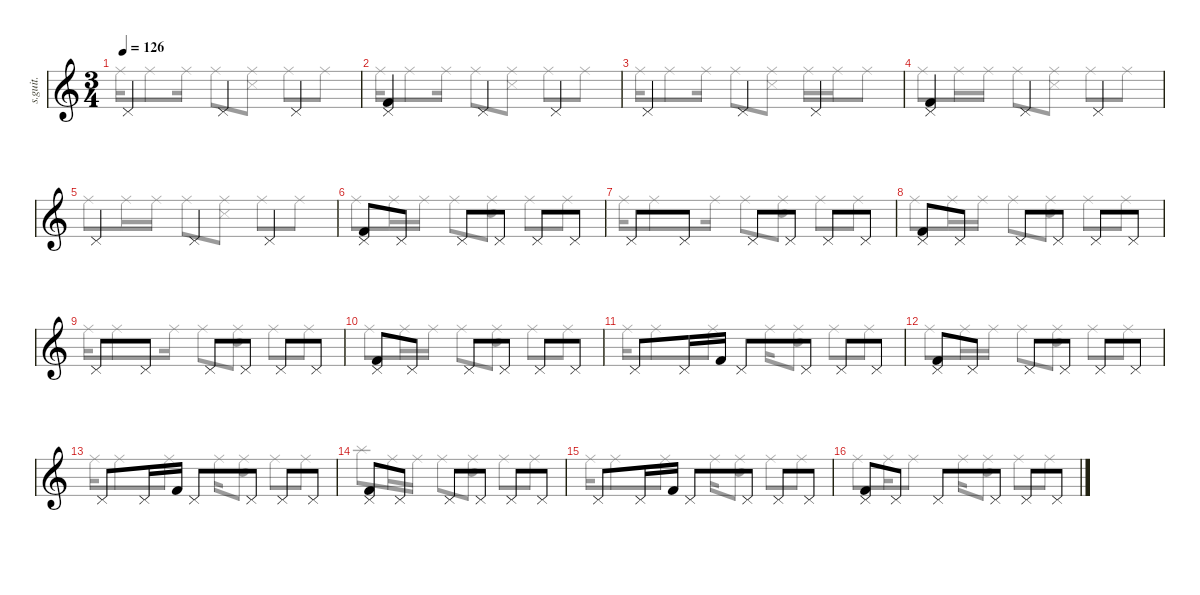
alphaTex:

\defaultSystemsLayout 4
\hideDynamics
\bracketExtendMode nobrackets
\track ("Percussion" "s.guit.") {instrument percussion}
\staff {score}
\articulation defaults
\voice
\ts (3 4)
\tempo 126
\clef g2
\ks c "Pedal Hi-Hat (hit)".4{lyrics (0 "") lyrics (1 "") lyrics (2 "") lyrics (3 "") lyrics (4 "") dy mf} "Pedal Hi-Hat (hit)".4{lyrics (0 "") lyrics (1 "") lyrics (2 "") lyrics (3 "") lyrics (4 "")} "Pedal Hi-Hat (hit)".4{lyrics (0 "") lyrics (1 "") lyrics (2 "") lyrics (3 "") lyrics (4 "")}
|
("Pedal Hi-Hat (hit)" "Kick (hit) 2").4{lyrics (0 "") lyrics (1 "") lyrics (2 "") lyrics (3 "") lyrics (4 "")} "Pedal Hi-Hat (hit)".4{lyrics (0 "") lyrics (1 "") lyrics (2 "") lyrics (3 "") lyrics (4 "")} "Pedal Hi-Hat (hit)".4{lyrics (0 "") lyrics (1 "") lyrics (2 "") lyrics (3 "") lyrics (4 "")} |
"Pedal Hi-Hat (hit)".4{lyrics (0 "") lyrics (1 "") lyrics (2 "") lyrics (3 "") lyrics (4 "")} "Pedal Hi-Hat (hit)".4{lyrics (0 "") lyrics (1 "") lyrics (2 "") lyrics (3 "") lyrics (4 "")} "Pedal Hi-Hat (hit)".4{lyrics (0 "") lyrics (1 "") lyrics (2 "") lyrics (3 "") lyrics (4 "")} |
("Pedal Hi-Hat (hit)" "Kick (hit) 2").4{lyrics (0 "") lyrics (1 "") lyrics (2 "") lyrics (3 "") lyrics (4 "")} "Pedal Hi-Hat (hit)".4{lyrics (0 "") lyrics (1 "") lyrics (2 "") lyrics (3 "") lyrics (4 "")} "Pedal Hi-Hat (hit)".4{lyrics (0 "") lyrics (1 "") lyrics (2 "") lyrics (3 "") lyrics (4 "")} |
"Pedal Hi-Hat (hit)".4{lyrics (0 "") lyrics (1 "") lyrics (2 "") lyrics (3 "") lyrics (4 "")} "Pedal Hi-Hat (hit)".4{lyrics (0 "") lyrics (1 "") lyrics (2 "") lyrics (3 "") lyrics (4 "")} "Pedal Hi-Hat (hit)".4{lyrics (0 "") lyrics (1 "") lyrics (2 "") lyrics (3 "") lyrics (4 "")} |
("Pedal Hi-Hat (hit)" "Kick (hit) 2").8{lyrics (0 "") lyrics (1 "") lyrics (2 "") lyrics (3 "") lyrics (4 "")} "Pedal Hi-Hat (hit)".8{lyrics (0 "") lyrics (1 "") lyrics (2 "") lyrics (3 "") lyrics (4 "")} "Pedal Hi-Hat (hit)".8{lyrics (0 "") lyrics (1 "") lyrics (2 "") lyrics (3 "") lyrics (4 "")} "Pedal Hi-Hat (hit)".8{lyrics (0 "") lyrics (1 "") lyrics (2 "") lyrics (3 "") lyrics (4 "")} "Pedal Hi-Hat (hit)".8{lyrics (0 "") lyrics (1 "") lyrics (2 "") lyrics (3 "") lyrics (4 "")} "Pedal Hi-Hat (hit)".8{lyrics (0 "") lyrics (1 "") lyrics (2 "") lyrics (3 "") lyrics (4 "")} |
"Pedal Hi-Hat (hit)".8{lyrics (0 "") lyrics (1 "") lyrics (2 "") lyrics (3 "") lyrics (4 "")} "Pedal Hi-Hat (hit)".8{lyrics (0 "") lyrics (1 "") lyrics (2 "") lyrics (3 "") lyrics (4 "")} "Pedal Hi-Hat (hit)".8{lyrics (0 "") lyrics (1 "") lyrics (2 "") lyrics (3 "") lyrics (4 "")} "Pedal Hi-Hat (hit)".8{lyrics (0 "") lyrics (1 "") lyrics (2 "") lyrics (3 "") lyrics (4 "")} "Pedal Hi-Hat (hit)".8{lyrics (0 "") lyrics (1 "") lyrics (2 "") lyrics (3 "") lyrics (4 "")} "Pedal Hi-Hat (hit)".8{lyrics (0 "") lyrics (1 "") lyrics (2 "") lyrics (3 "") lyrics (4 "")} |
("Pedal Hi-Hat (hit)" "Kick (hit) 2").8{lyrics (0 "") lyrics (1 "") lyrics (2 "") lyrics (3 "") lyrics (4 "")} "Pedal Hi-Hat (hit)".8{lyrics (0 "") lyrics (1 "") lyrics (2 "") lyrics (3 "") lyrics (4 "")} "Pedal Hi-Hat (hit)".8{lyrics (0 "") lyrics (1 "") lyrics (2 "") lyrics (3 "") lyrics (4 "")} "Pedal Hi-Hat (hit)".8{lyrics (0 "") lyrics (1 "") lyrics (2 "") lyrics (3 "") lyrics (4 "")} "Pedal Hi-Hat (hit)".8{lyrics (0 "") lyrics (1 "") lyrics (2 "") lyrics (3 "") lyrics (4 "")} "Pedal Hi-Hat (hit)".8{lyrics (0 "") lyrics (1 "") lyrics (2 "") lyrics (3 "") lyrics (4 "")} |
"Pedal Hi-Hat (hit)".8{lyrics (0 "") lyrics (1 "") lyrics (2 "") lyrics (3 "") lyrics (4 "")} "Pedal Hi-Hat (hit)".8{lyrics (0 "") lyrics (1 "") lyrics (2 "") lyrics (3 "") lyrics (4 "")} "Pedal Hi-Hat (hit)".8{lyrics (0 "") lyrics (1 "") lyrics (2 "") lyrics (3 "") lyrics (4 "")} "Pedal Hi-Hat (hit)".8{lyrics (0 "") lyrics (1 "") lyrics (2 "") lyrics (3 "") lyrics (4 "")} "Pedal Hi-Hat (hit)".8{lyrics (0 "") lyrics (1 "") lyrics (2 "") lyrics (3 "") lyrics (4 "")} "Pedal Hi-Hat (hit)".8{lyrics (0 "") lyrics (1 "") lyrics (2 "") lyrics (3 "") lyrics (4 "")} |
("Pedal Hi-Hat (hit)" "Kick (hit) 2").8{lyrics (0 "") lyrics (1 "") lyrics (2 "") lyrics (3 "") lyrics (4 "")} "Pedal Hi-Hat (hit)".8{lyrics (0 "") lyrics (1 "") lyrics (2 "") lyrics (3 "") lyrics (4 "")} "Pedal Hi-Hat (hit)".8{lyrics (0 "") lyrics (1 "") lyrics (2 "") lyrics (3 "") lyrics (4 "")} "Pedal Hi-Hat (hit)".8{lyrics (0 "") lyrics (1 "") lyrics (2 "") lyrics (3 "") lyrics (4 "")} "Pedal Hi-Hat (hit)".8{lyrics (0 "") lyrics (1 "") lyrics (2 "") lyrics (3 "") lyrics (4 "")} "Pedal Hi-Hat (hit)".8{lyrics (0 "") lyrics (1 "") lyrics (2 "") lyrics (3 "") lyrics (4 "")} |
"Pedal Hi-Hat (hit)".8{lyrics (0 "") lyrics (1 "") lyrics (2 "") lyrics (3 "") lyrics (4 "")} "Pedal Hi-Hat (hit)".16{lyrics (0 "") lyrics (1 "") lyrics (2 "") lyrics (3 "") lyrics (4 "")} "Kick (hit) 2".16{lyrics (0 "") lyrics (1 "") lyrics (2 "") lyrics (3 "") lyrics (4 "")} "Pedal Hi-Hat (hit)".8{lyrics (0 "") lyrics (1 "") lyrics (2 "") lyrics (3 "") lyrics (4 "")} "Pedal Hi-Hat (hit)".8{lyrics (0 "") lyrics (1 "") lyrics (2 "") lyrics (3 "") lyrics (4 "")} "Pedal Hi-Hat (hit)".8{lyrics (0 "") lyrics (1 "") lyrics (2 "") lyrics (3 "") lyrics (4 "")} "Pedal Hi-Hat (hit)".8{lyrics (0 "") lyrics (1 "") lyrics (2 "") lyrics (3 "") lyrics (4 "")} |
("Pedal Hi-Hat (hit)" "Kick (hit) 2").8{lyrics (0 "") lyrics (1 "") lyrics (2 "") lyrics (3 "") lyrics (4 "")} "Pedal Hi-Hat (hit)".8{lyrics (0 "") lyrics (1 "") lyrics (2 "") lyrics (3 "") lyrics (4 "")} "Pedal Hi-Hat (hit)".8{lyrics (0 "") lyrics (1 "") lyrics (2 "") lyrics (3 "") lyrics (4 "")} "Pedal Hi-Hat (hit)".8{lyrics (0 "") lyrics (1 "") lyrics (2 "") lyrics (3 "") lyrics (4 "")} "Pedal Hi-Hat (hit)".8{lyrics (0 "") lyrics (1 "") lyrics (2 "") lyrics (3 "") lyrics (4 "")} "Pedal Hi-Hat (hit)".8{lyrics (0 "") lyrics (1 "") lyrics (2 "") lyrics (3 "") lyrics (4 "")} |
"Pedal Hi-Hat (hit)".8{lyrics (0 "") lyrics (1 "") lyrics (2 "") lyrics (3 "") lyrics (4 "")} "Pedal Hi-Hat (hit)".16{lyrics (0 "") lyrics (1 "") lyrics (2 "") lyrics (3 "") lyrics (4 "")} "Kick (hit) 2".16{lyrics (0 "") lyrics (1 "") lyrics (2 "") lyrics (3 "") lyrics (4 "")} "Pedal Hi-Hat (hit)".8{lyrics (0 "") lyrics (1 "") lyrics (2 "") lyrics (3 "") lyrics (4 "")} "Pedal Hi-Hat (hit)".8{lyrics (0 "") lyrics (1 "") lyrics (2 "") lyrics (3 "") lyrics (4 "")} "Pedal Hi-Hat (hit)".8{lyrics (0 "") lyrics (1 "") lyrics (2 "") lyrics (3 "") lyrics (4 "")} "Pedal Hi-Hat (hit)".8{lyrics (0 "") lyrics (1 "") lyrics (2 "") lyrics (3 "") lyrics (4 "")} |
("Pedal Hi-Hat (hit)" "Kick (hit) 2").8{lyrics (0 "") lyrics (1 "") lyrics (2 "") lyrics (3 "") lyrics (4 "")} "Pedal Hi-Hat (hit)".8{lyrics (0 "") lyrics (1 "") lyrics (2 "") lyrics (3 "") lyrics (4 "")} "Pedal Hi-Hat (hit)".8{lyrics (0 "") lyrics (1 "") lyrics (2 "") lyrics (3 "") lyrics (4 "")} "Pedal Hi-Hat (hit)".8{lyrics (0 "") lyrics (1 "") lyrics (2 "") lyrics (3 "") lyrics (4 "")} "Pedal Hi-Hat (hit)".8{lyrics (0 "") lyrics (1 "") lyrics (2 "") lyrics (3 "") lyrics (4 "")} "Pedal Hi-Hat (hit)".8{lyrics (0 "") lyrics (1 "") lyrics (2 "") lyrics (3 "") lyrics (4 "")} |
"Pedal Hi-Hat (hit)".8{lyrics (0 "") lyrics (1 "") lyrics (2 "") lyrics (3 "") lyrics (4 "")} "Pedal Hi-Hat (hit)".16{lyrics (0 "") lyrics (1 "") lyrics (2 "") lyrics (3 "") lyrics (4 "")} "Kick (hit) 2".16{lyrics (0 "") lyrics (1 "") lyrics (2 "") lyrics (3 "") lyrics (4 "")} "Pedal Hi-Hat (hit)".8{lyrics (0 "") lyrics (1 "") lyrics (2 "") lyrics (3 "") lyrics (4 "")} "Pedal Hi-Hat (hit)".8{lyrics (0 "") lyrics (1 "") lyrics (2 "") lyrics (3 "") lyrics (4 "")} "Pedal Hi-Hat (hit)".8{lyrics (0 "") lyrics (1 "") lyrics (2 "") lyrics (3 "") lyrics (4 "")} "Pedal Hi-Hat (hit)".8{lyrics (0 "") lyrics (1 "") lyrics (2 "") lyrics (3 "") lyrics (4 "")} |
("Pedal Hi-Hat (hit)" "Kick (hit) 2").8{lyrics (0 "") lyrics (1 "") lyrics (2 "") lyrics (3 "") lyrics (4 "")} "Pedal Hi-Hat (hit)".8{lyrics (0 "") lyrics (1 "") lyrics (2 "") lyrics (3 "") lyrics (4 "")} "Pedal Hi-Hat (hit)".8{lyrics (0 "") lyrics (1 "") lyrics (2 "") lyrics (3 "") lyrics (4 "")} "Pedal Hi-Hat (hit)".8{lyrics (0 "") lyrics (1 "") lyrics (2 "") lyrics (3 "") lyrics (4 "")} "Pedal Hi-Hat (hit)".8{lyrics (0 "") lyrics (1 "") lyrics (2 "") lyrics (3 "") lyrics (4 "")} "Pedal Hi-Hat (hit)".8{lyrics (0 "") lyrics (1 "") lyrics (2 "") lyrics (3 "") lyrics (4 "")}
\voice
\clef g2
\ottava regular
\simile none
\ks c "Ride (middle)".16{lyrics (0 "") lyrics (1 "") lyrics (2 "") lyrics (3 "") lyrics (4 "") dy mf} "Ride (middle)".8{lyrics (0 "") lyrics (1 "") lyrics (2 "") lyrics (3 "") lyrics (4 "")} "Ride (middle)".16{lyrics (0 "") lyrics (1 "") lyrics (2 "") lyrics (3 "") lyrics (4 "")} "Ride (middle)".8{lyrics (0 "") lyrics (1 "") lyrics (2 "") lyrics (3 "") lyrics (4 "")}
("Ride (middle)" "Snare (side stick) 3").8{lyrics (0 "") lyrics (1 "") lyrics (2 "") lyrics (3 "") lyrics (4 "")} "Ride (middle)".8{lyrics (0 "") lyrics (1 "") lyrics (2 "") lyrics (3 "") lyrics (4 "")} "Ride (middle)".8{lyrics (0 "") lyrics (1 "") lyrics (2 "") lyrics (3 "") lyrics (4 "")} |
"Ride (middle)".16{lyrics (0 "") lyrics (1 "") lyrics (2 "") lyrics (3 "") lyrics (4 "")} "Ride (middle)".8{lyrics (0 "") lyrics (1 "") lyrics (2 "") lyrics (3 "") lyrics (4 "")} "Ride (middle)".16{lyrics (0 "") lyrics (1 "") lyrics (2 "") lyrics (3 "") lyrics (4 "")} "Ride (middle)".8{lyrics (0 "") lyrics (1 "") lyrics (2 "") lyrics (3 "") lyrics (4 "")} ("Ride (middle)" "Snare (side stick) 3").8{lyrics (0 "") lyrics (1 "") lyrics (2 "") lyrics (3 "") lyrics (4 "")} "Ride (middle)".8{lyrics (0 "") lyrics (1 "") lyrics (2 "") lyrics (3 "") lyrics (4 "")} "Ride (middle)".8{lyrics (0 "") lyrics (1 "") lyrics (2 "") lyrics (3 "") lyrics (4 "")} |
"Ride (middle)".16{lyrics (0 "") lyrics (1 "") lyrics (2 "") lyrics (3 "") lyrics (4 "")} "Ride (middle)".8{lyrics (0 "") lyrics (1 "") lyrics (2 "") lyrics (3 "") lyrics (4 "")} "Ride (middle)".16{lyrics (0 "") lyrics (1 "") lyrics (2 "") lyrics (3 "") lyrics (4 "")} "Ride (middle)".8{lyrics (0 "") lyrics (1 "") lyrics (2 "") lyrics (3 "") lyrics (4 "")} ("Ride (middle)" "Snare (side stick) 3").8{lyrics (0 "") lyrics (1 "") lyrics (2 "") lyrics (3 "") lyrics (4 "")} "Ride (middle)".16{lyrics (0 "") lyrics (1 "") lyrics (2 "") lyrics (3 "") lyrics (4 "")} "Ride (middle)".16{lyrics (0 "") lyrics (1 "") lyrics (2 "") lyrics (3 "") lyrics (4 "")} "Ride (middle)".8{lyrics (0 "") lyrics (1 "") lyrics (2 "") lyrics (3 "") lyrics (4 "")} |
"Ride (middle)".8{lyrics (0 "") lyrics (1 "") lyrics (2 "") lyrics (3 "") lyrics (4 "")} "Ride (middle)".16{lyrics (0 "") lyrics (1 "") lyrics (2 "") lyrics (3 "") lyrics (4 "")} "Ride (middle)".16{lyrics (0 "") lyrics (1 "") lyrics (2 "") lyrics (3 "") lyrics (4 "")} "Ride (middle)".8{lyrics (0 "") lyrics (1 "") lyrics (2 "") lyrics (3 "") lyrics (4 "")} ("Ride (middle)" "Snare (side stick) 3").8{lyrics (0 "") lyrics (1 "") lyrics (2 "") lyrics (3 "") lyrics (4 "")} "Ride (middle)".8{lyrics (0 "") lyrics (1 "") lyrics (2 "") lyrics (3 "") lyrics (4 "")} "Ride (middle)".8{lyrics (0 "") lyrics (1 "") lyrics (2 "") lyrics (3 "") lyrics (4 "")} |
"Ride (middle)".8{lyrics (0 "") lyrics (1 "") lyrics (2 "") lyrics (3 "") lyrics (4 "")} "Ride (middle)".16{lyrics (0 "") lyrics (1 "") lyrics (2 "") lyrics (3 "") lyrics (4 "")} "Ride (middle)".16{lyrics (0 "") lyrics (1 "") lyrics (2 "") lyrics (3 "") lyrics (4 "")} "Ride (middle)".8{lyrics (0 "") lyrics (1 "") lyrics (2 "") lyrics (3 "") lyrics (4 "")} ("Ride (middle)" "Snare (side stick) 3").8{lyrics (0 "") lyrics (1 "") lyrics (2 "") lyrics (3 "") lyrics (4 "")} "Ride (middle)".8{lyrics (0 "") lyrics (1 "") lyrics (2 "") lyrics (3 "") lyrics (4 "")} "Ride (middle)".8{lyrics (0 "") lyrics (1 "") lyrics (2 "") lyrics (3 "") lyrics (4 "")} |
"Ride (middle)".8{lyrics (0 "") lyrics (1 "") lyrics (2 "") lyrics (3 "") lyrics (4 "")} "Ride (middle)".16{lyrics (0 "") lyrics (1 "") lyrics (2 "") lyrics (3 "") lyrics (4 "")} "Ride (middle)".16{lyrics (0 "") lyrics (1 "") lyrics (2 "") lyrics (3 "") lyrics (4 "")} "Ride (middle)".8{lyrics (0 "") lyrics (1 "") lyrics (2 "") lyrics (3 "") lyrics (4 "")} ("Ride (middle)" "Snare (hit) 2").8{lyrics (0 "") lyrics (1 "") lyrics (2 "") lyrics (3 "") lyrics (4 "")} "Ride (middle)".8{lyrics (0 "") lyrics (1 "") lyrics (2 "") lyrics (3 "") lyrics (4 "")} "Ride (middle)".8{lyrics (0 "") lyrics (1 "") lyrics (2 "") lyrics (3 "") lyrics (4 "")} |
"Ride (middle)".16{lyrics (0 "") lyrics (1 "") lyrics (2 "") lyrics (3 "") lyrics (4 "")} "Ride (middle)".8{lyrics (0 "") lyrics (1 "") lyrics (2 "") lyrics (3 "") lyrics (4 "")} "Ride (middle)".16{lyrics (0 "") lyrics (1 "") lyrics (2 "") lyrics (3 "") lyrics (4 "")} "Ride (middle)".8{lyrics (0 "") lyrics (1 "") lyrics (2 "") lyrics (3 "") lyrics (4 "")} ("Ride (middle)" "Snare (hit) 2").8{lyrics (0 "") lyrics (1 "") lyrics (2 "") lyrics (3 "") lyrics (4 "")} "Ride (middle)".8{lyrics (0 "") lyrics (1 "") lyrics (2 "") lyrics (3 "") lyrics (4 "")} "Ride (middle)".8{lyrics (0 "") lyrics (1 "") lyrics (2 "") lyrics (3 "") lyrics (4 "")} |
"Ride (middle)".8{lyrics (0 "") lyrics (1 "") lyrics (2 "") lyrics (3 "") lyrics (4 "")} "Ride (middle)".16{lyrics (0 "") lyrics (1 "") lyrics (2 "") lyrics (3 "") lyrics (4 "")} "Ride (middle)".16{lyrics (0 "") lyrics (1 "") lyrics (2 "") lyrics (3 "") lyrics (4 "")} "Ride (middle)".8{lyrics (0 "") lyrics (1 "") lyrics (2 "") lyrics (3 "") lyrics (4 "")} ("Ride (middle)" "Snare (hit) 2").8{lyrics (0 "") lyrics (1 "") lyrics (2 "") lyrics (3 "") lyrics (4 "")} "Ride (middle)".8{lyrics (0 "") lyrics (1 "") lyrics (2 "") lyrics (3 "") lyrics (4 "")} "Ride (middle)".8{lyrics (0 "") lyrics (1 "") lyrics (2 "") lyrics (3 "") lyrics (4 "")} |
"Ride (middle)".16{lyrics (0 "") lyrics (1 "") lyrics (2 "") lyrics (3 "") lyrics (4 "")} "Ride (middle)".8{lyrics (0 "") lyrics (1 "") lyrics (2 "") lyrics (3 "") lyrics (4 "")} "Ride (middle)".16{lyrics (0 "") lyrics (1 "") lyrics (2 "") lyrics (3 "") lyrics (4 "")} "Ride (middle)".8{lyrics (0 "") lyrics (1 "") lyrics (2 "") lyrics (3 "") lyrics (4 "")} ("Ride (middle)" "Snare (hit) 2").8{lyrics (0 "") lyrics (1 "") lyrics (2 "") lyrics (3 "") lyrics (4 "")} "Ride (middle)".8{lyrics (0 "") lyrics (1 "") lyrics (2 "") lyrics (3 "") lyrics (4 "")} "Ride (middle)".8{lyrics (0 "") lyrics (1 "") lyrics (2 "") lyrics (3 "") lyrics (4 "")} |
"Ride (middle)".8{lyrics (0 "") lyrics (1 "") lyrics (2 "") lyrics (3 "") lyrics (4 "")} "Ride (middle)".16{lyrics (0 "") lyrics (1 "") lyrics (2 "") lyrics (3 "") lyrics (4 "")} "Ride (middle)".16{lyrics (0 "") lyrics (1 "") lyrics (2 "") lyrics (3 "") lyrics (4 "")} "Ride (middle)".8{lyrics (0 "") lyrics (1 "") lyrics (2 "") lyrics (3 "") lyrics (4 "")} ("Ride (middle)" "Snare (hit) 2").8{lyrics (0 "") lyrics (1 "") lyrics (2 "") lyrics (3 "") lyrics (4 "")} "Ride (middle)".8{lyrics (0 "") lyrics (1 "") lyrics (2 "") lyrics (3 "") lyrics (4 "")} "Ride (middle)".8{lyrics (0 "") lyrics (1 "") lyrics (2 "") lyrics (3 "") lyrics (4 "")} |
"Ride (middle)".16{lyrics (0 "") lyrics (1 "") lyrics (2 "") lyrics (3 "") lyrics (4 "")} "Ride (middle)".8{lyrics (0 "") lyrics (1 "") lyrics (2 "") lyrics (3 "") lyrics (4 "")} "Ride (middle)".8{lyrics (0 "") lyrics (1 "") lyrics (2 "") lyrics (3 "") lyrics (4 "")} "Ride (middle)".16{lyrics (0 "") lyrics (1 "") lyrics (2 "") lyrics (3 "") lyrics (4 "")} ("Ride (middle)" "Snare (hit) 2").8{lyrics (0 "") lyrics (1 "") lyrics (2 "") lyrics (3 "") lyrics (4 "")} "Ride (middle)".8{lyrics (0 "") lyrics (1 "") lyrics (2 "") lyrics (3 "") lyrics (4 "")} "Ride (middle)".8{lyrics (0 "") lyrics (1 "") lyrics (2 "") lyrics (3 "") lyrics (4 "")} |
"Ride (middle)".8{lyrics (0 "") lyrics (1 "") lyrics (2 "") lyrics (3 "") lyrics (4 "")} "Ride (middle)".16{lyrics (0 "") lyrics (1 "") lyrics (2 "") lyrics (3 "") lyrics (4 "")} "Ride (middle)".16{lyrics (0 "") lyrics (1 "") lyrics (2 "") lyrics (3 "") lyrics (4 "")} "Ride (middle)".8{lyrics (0 "") lyrics (1 "") lyrics (2 "") lyrics (3 "") lyrics (4 "")} ("Ride (middle)" "Snare (hit) 2").8{lyrics (0 "") lyrics (1 "") lyrics (2 "") lyrics (3 "") lyrics (4 "")} "Ride (middle)".8{lyrics (0 "") lyrics (1 "") lyrics (2 "") lyrics (3 "") lyrics (4 "")} "Ride (middle)".8{lyrics (0 "") lyrics (1 "") lyrics (2 "") lyrics (3 "") lyrics (4 "")} |
"Ride (middle)".16{lyrics (0 "") lyrics (1 "") lyrics (2 "") lyrics (3 "") lyrics (4 "")} "Ride (middle)".8{lyrics (0 "") lyrics (1 "") lyrics (2 "") lyrics (3 "") lyrics (4 "")} "Ride (middle)".8{lyrics (0 "") lyrics (1 "") lyrics (2 "") lyrics (3 "") lyrics (4 "")} "Ride (middle)".16{lyrics (0 "") lyrics (1 "") lyrics (2 "") lyrics (3 "") lyrics (4 "")} ("Ride (middle)" "Snare (hit) 2").8{lyrics (0 "") lyrics (1 "") lyrics (2 "") lyrics (3 "") lyrics (4 "")} "Ride (middle)".8{lyrics (0 "") lyrics (1 "") lyrics (2 "") lyrics (3 "") lyrics (4 "")} "Ride (middle)".8{lyrics (0 "") lyrics (1 "") lyrics (2 "") lyrics (3 "") lyrics (4 "")} |
"Splash (hit)".8{lyrics (0 "") lyrics (1 "") lyrics (2 "") lyrics (3 "") lyrics (4 "")} "Ride (middle)".16{lyrics (0 "") lyrics (1 "") lyrics (2 "") lyrics (3 "") lyrics (4 "")} "Ride (middle)".16{lyrics (0 "") lyrics (1 "") lyrics (2 "") lyrics (3 "") lyrics (4 "")} "Ride (middle)".8{lyrics (0 "") lyrics (1 "") lyrics (2 "") lyrics (3 "") lyrics (4 "")} ("Ride (middle)" "Snare (hit) 2").8{lyrics (0 "") lyrics (1 "") lyrics (2 "") lyrics (3 "") lyrics (4 "")} "Ride (middle)".8{lyrics (0 "") lyrics (1 "") lyrics (2 "") lyrics (3 "") lyrics (4 "")} "Ride (middle)".8{lyrics (0 "") lyrics (1 "") lyrics (2 "") lyrics (3 "") lyrics (4 "")} |
"Ride (middle)".16{lyrics (0 "") lyrics (1 "") lyrics (2 "") lyrics (3 "") lyrics (4 "")} "Ride (middle)".8{lyrics (0 "") lyrics (1 "") lyrics (2 "") lyrics (3 "") lyrics (4 "")} "Ride (middle)".8{lyrics (0 "") lyrics (1 "") lyrics (2 "") lyrics (3 "") lyrics (4 "")} "Ride (middle)".16{lyrics (0 "") lyrics (1 "") lyrics (2 "") lyrics (3 "") lyrics (4 "")} ("Ride (middle)" "Snare (hit) 2").8{lyrics (0 "") lyrics (1 "") lyrics (2 "") lyrics (3 "") lyrics (4 "")} "Ride (middle)".8{lyrics (0 "") lyrics (1 "") lyrics (2 "") lyrics (3 "") lyrics (4 "")} "Ride (middle)".8{lyrics (0 "") lyrics (1 "") lyrics (2 "") lyrics (3 "") lyrics (4 "")} |
"Ride (middle)".8{lyrics (0 "") lyrics (1 "") lyrics (2 "") lyrics (3 "") lyrics (4 "")} "Ride (middle)".16{lyrics (0 "") lyrics (1 "") lyrics (2 "") lyrics (3 "") lyrics (4 "")} "Ride (middle)".8{lyrics (0 "") lyrics (1 "") lyrics (2 "") lyrics (3 "") lyrics (4 "")} "Ride (middle)".16{lyrics (0 "") lyrics (1 "") lyrics (2 "") lyrics (3 "") lyrics (4 "")} ("Ride (middle)" "Snare (hit) 2").8{lyrics (0 "") lyrics (1 "") lyrics (2 "") lyrics (3 "") lyrics (4 "")} "Ride (middle)".8{lyrics (0 "") lyrics (1 "") lyrics (2 "") lyrics (3 "") lyrics (4 "")} "Ride (middle)".8{lyrics (0 "") lyrics (1 "") lyrics (2 "") lyrics (3 "") lyrics (4 "")}
